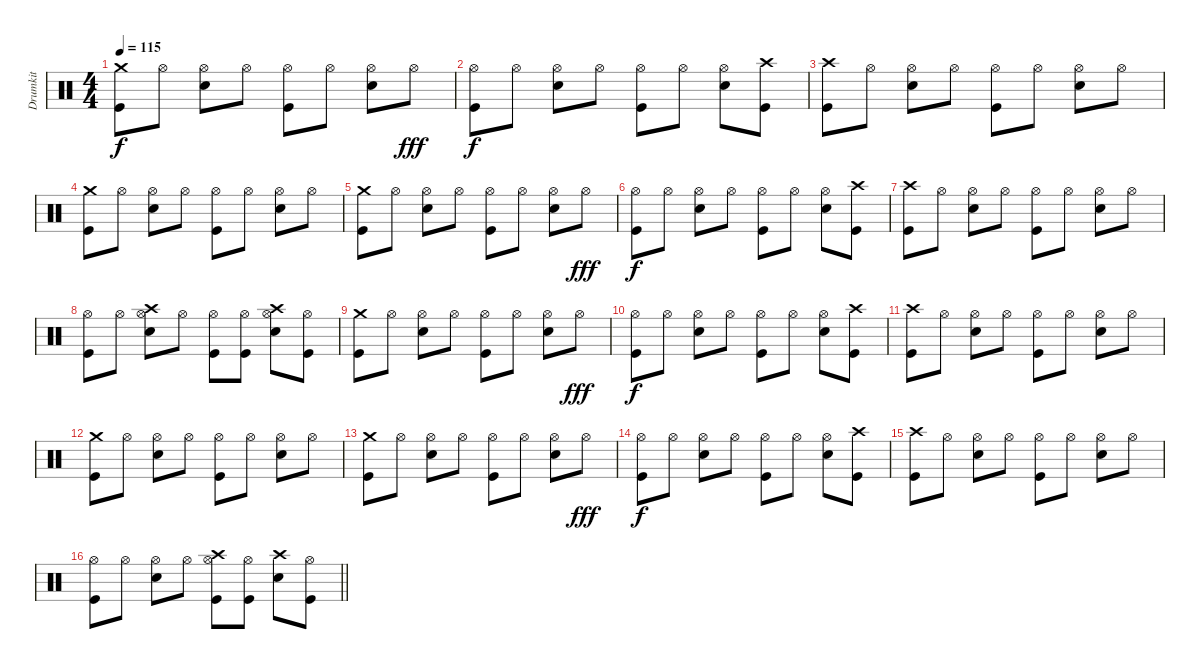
\track ("Drumkit" "Drumkit") {instrument percussion}
\staff {score}
\articulation defaults
\ts (4 4)
\tempo 115
\clef neutral
\ks c
("Crash medium (hit)" "Kick (hit)").8{dy f} "Hi-Hat (open)".8 ("Hi-Hat (open)" "Snare (hit) 2").8 "Hi-Hat (open)".8 ("Hi-Hat (open)" "Kick (hit)").8 "Hi-Hat (open)".8 ("Hi-Hat (open)" "Snare (hit) 2").8 "Hi-Hat (open)".8{dy fff} |
("Hi-Hat (open)" "Kick (hit)").8{dy f} "Hi-Hat (open)".8 ("Hi-Hat (open)" "Snare (hit) 2").8 "Hi-Hat (open)".8 ("Hi-Hat (open)" "Kick (hit)").8 "Hi-Hat (open)".8 ("Hi-Hat (open)" "Snare (hit) 2").8 ("Crash high (hit)" "Kick (hit)").8 |
("Crash high (hit)" "Kick (hit)").8 "Hi-Hat (open)".8 ("Hi-Hat (open)" "Snare (hit) 2").8 "Hi-Hat (open)".8 ("Hi-Hat (open)" "Kick (hit)").8 "Hi-Hat (open)".8 ("Hi-Hat (open)" "Snare (hit) 2").8 "Hi-Hat (open)".8 |
("Crash medium (hit)" "Kick (hit)").8 "Hi-Hat (open)".8 ("Hi-Hat (open)" "Snare (hit) 2").8 "Hi-Hat (open)".8 ("Hi-Hat (open)" "Kick (hit)").8 "Hi-Hat (open)".8 ("Hi-Hat (open)" "Snare (hit) 2").8 "Hi-Hat (open)".8 |
("Crash medium (hit)" "Kick (hit)").8 "Hi-Hat (open)".8 ("Hi-Hat (open)" "Snare (hit) 2").8 "Hi-Hat (open)".8 ("Hi-Hat (open)" "Kick (hit)").8 "Hi-Hat (open)".8 ("Hi-Hat (open)" "Snare (hit) 2").8 "Hi-Hat (open)".8{dy fff} |
("Hi-Hat (open)" "Kick (hit)").8{dy f} "Hi-Hat (open)".8 ("Hi-Hat (open)" "Snare (hit) 2").8 "Hi-Hat (open)".8 ("Hi-Hat (open)" "Kick (hit)").8 "Hi-Hat (open)".8 ("Hi-Hat (open)" "Snare (hit) 2").8 ("Crash high (hit)" "Kick (hit)").8 |
("Crash high (hit)" "Kick (hit)").8 "Hi-Hat (open)".8 ("Hi-Hat (open)" "Snare (hit) 2").8 "Hi-Hat (open)".8 ("Hi-Hat (open)" "Kick (hit)").8 "Hi-Hat (open)".8 ("Hi-Hat (open)" "Snare (hit) 2").8 "Hi-Hat (open)".8 |
("Hi-Hat (open)" "Kick (hit)").8 "Hi-Hat (open)".8 ("Hi-Hat (open)" "Crash high (hit)" "Snare (hit) 2").8 "Hi-Hat (open)".8 ("Hi-Hat (open)" "Kick (hit)").8 ("Hi-Hat (open)" "Kick (hit)").8 ("Crash high (hit)" "Hi-Hat (open)" "Snare (hit) 2").8 ("Hi-Hat (open)" "Kick (hit)").8 |
("Crash medium (hit)" "Kick (hit)").8 "Hi-Hat (open)".8 ("Hi-Hat (open)" "Snare (hit) 2").8 "Hi-Hat (open)".8 ("Hi-Hat (open)" "Kick (hit)").8 "Hi-Hat (open)".8 ("Hi-Hat (open)" "Snare (hit) 2").8 "Hi-Hat (open)".8{dy fff} |
("Hi-Hat (open)" "Kick (hit)").8{dy f} "Hi-Hat (open)".8 ("Hi-Hat (open)" "Snare (hit) 2").8 "Hi-Hat (open)".8 ("Hi-Hat (open)" "Kick (hit)").8 "Hi-Hat (open)".8 ("Hi-Hat (open)" "Snare (hit) 2").8 ("Crash high (hit)" "Kick (hit)").8 |
("Crash high (hit)" "Kick (hit)").8 "Hi-Hat (open)".8 ("Hi-Hat (open)" "Snare (hit) 2").8 "Hi-Hat (open)".8 ("Hi-Hat (open)" "Kick (hit)").8 "Hi-Hat (open)".8 ("Hi-Hat (open)" "Snare (hit) 2").8 "Hi-Hat (open)".8 |
("Crash medium (hit)" "Kick (hit)").8 "Hi-Hat (open)".8 ("Hi-Hat (open)" "Snare (hit) 2").8 "Hi-Hat (open)".8 ("Hi-Hat (open)" "Kick (hit)").8 "Hi-Hat (open)".8 ("Hi-Hat (open)" "Snare (hit) 2").8 "Hi-Hat (open)".8 |
("Crash medium (hit)" "Kick (hit)").8 "Hi-Hat (open)".8 ("Hi-Hat (open)" "Snare (hit) 2").8 "Hi-Hat (open)".8 ("Hi-Hat (open)" "Kick (hit)").8 "Hi-Hat (open)".8 ("Hi-Hat (open)" "Snare (hit) 2").8 "Hi-Hat (open)".8{dy fff} |
("Hi-Hat (open)" "Kick (hit)").8{dy f} "Hi-Hat (open)".8 ("Hi-Hat (open)" "Snare (hit) 2").8 "Hi-Hat (open)".8 ("Hi-Hat (open)" "Kick (hit)").8 "Hi-Hat (open)".8 ("Hi-Hat (open)" "Snare (hit) 2").8 ("Crash high (hit)" "Kick (hit)").8 |
("Crash high (hit)" "Kick (hit)").8 "Hi-Hat (open)".8 ("Hi-Hat (open)" "Snare (hit) 2").8 "Hi-Hat (open)".8 ("Hi-Hat (open)" "Kick (hit)").8 "Hi-Hat (open)".8 ("Hi-Hat (open)" "Snare (hit) 2").8 "Hi-Hat (open)".8 |
\barLineRight lightlight
("Hi-Hat (open)" "Kick (hit)").8 "Hi-Hat (open)".8 ("Hi-Hat (open)" "Snare (hit) 2").8 "Hi-Hat (open)".8 ("Hi-Hat (open)" "Crash high (hit)" "Kick (hit)").8 ("Hi-Hat (open)" "Kick (hit)").8 ("Crash high (hit)" "Snare (hit) 2").8 ("Hi-Hat (open)" "Kick (hit)").8
